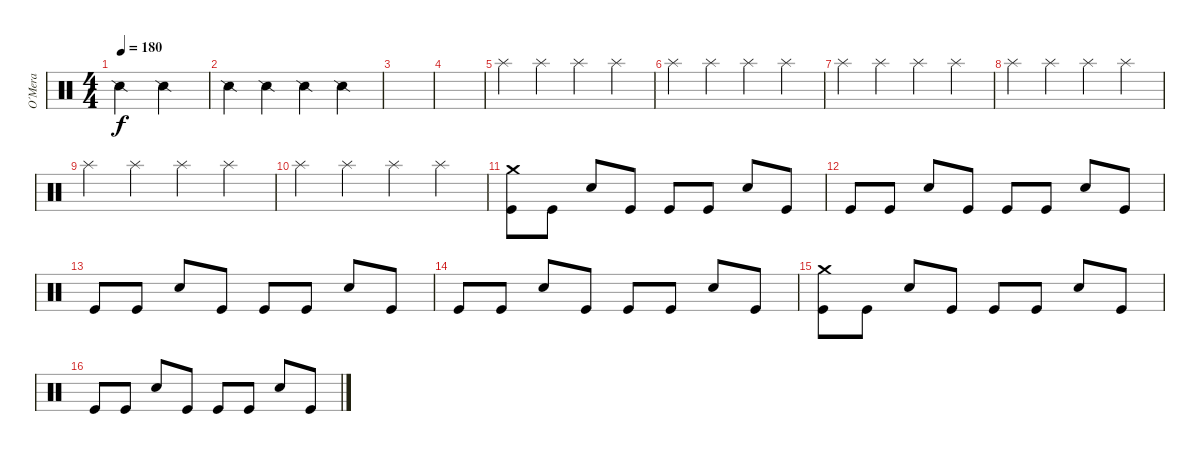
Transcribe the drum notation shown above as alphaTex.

\track ("O´Mera" "O´Mera") {instrument percussion}
\staff {score}
\articulation defaults
\ts (4 4)
\tempo 180
\clef neutral
\ks c "Snare (side stick) 2".2{dy f} "Snare (side stick) 2".2
|
"Snare (side stick) 2".4 "Snare (side stick) 2".4 "Snare (side stick) 2".4 "Snare (side stick) 2".4 |
|
|
"Splash (hit)".4 "Splash (hit)".4 "Splash (hit)".4 "Splash (hit)".4 |
"Splash (hit)".4 "Splash (hit)".4 "Splash (hit)".4 "Splash (hit)".4 |
"Splash (hit)".4 "Splash (hit)".4 "Splash (hit)".4 "Splash (hit)".4 |
"Splash (hit)".4 "Splash (hit)".4 "Splash (hit)".4 "Splash (hit)".4 |
"Splash (hit)".4 "Splash (hit)".4 "Splash (hit)".4 "Splash (hit)".4 |
"Splash (hit)".4 "Splash (hit)".4 "Splash (hit)".4 "Splash (hit)".4 |
("Crash medium (hit)" "Kick (hit)").8 "Kick (hit)".8 "Electric Snare (hit)".8 "Kick (hit)".8 "Kick (hit)".8 "Kick (hit)".8 "Electric Snare (hit)".8 "Kick (hit)".8 |
"Kick (hit)".8 "Kick (hit)".8 "Electric Snare (hit)".8 "Kick (hit)".8 "Kick (hit)".8 "Kick (hit)".8 "Electric Snare (hit)".8 "Kick (hit)".8 |
"Kick (hit)".8 "Kick (hit)".8 "Electric Snare (hit)".8 "Kick (hit)".8 "Kick (hit)".8 "Kick (hit)".8 "Electric Snare (hit)".8 "Kick (hit)".8 |
"Kick (hit)".8 "Kick (hit)".8 "Electric Snare (hit)".8 "Kick (hit)".8 "Kick (hit)".8 "Kick (hit)".8 "Electric Snare (hit)".8 "Kick (hit)".8 |
("Crash medium (hit)" "Kick (hit)").8 "Kick (hit)".8 "Electric Snare (hit)".8 "Kick (hit)".8 "Kick (hit)".8 "Kick (hit)".8 "Electric Snare (hit)".8 "Kick (hit)".8 |
"Kick (hit)".8 "Kick (hit)".8 "Electric Snare (hit)".8 "Kick (hit)".8 "Kick (hit)".8 "Kick (hit)".8 "Electric Snare (hit)".8 "Kick (hit)".8
